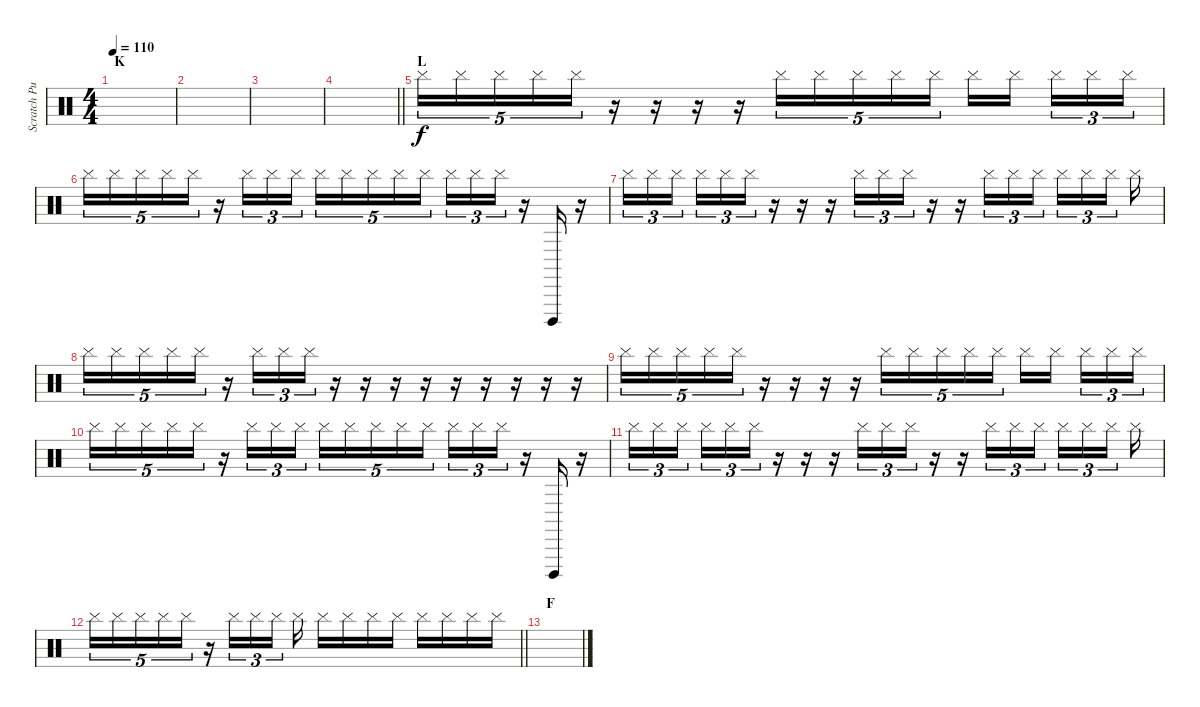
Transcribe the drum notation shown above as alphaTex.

\track ("Scratch Pull Synth" "Scratch Pu") {instrument percussion}
\staff {score}
\articulation defaults
\ts (4 4)
\section ("" "K")
\tempo 110
\clef neutral
\ks c
|
|
|
\barLineRight lightlight
|
\section ("" "L ")
"Cymbal (hit)".16{tu (5 4)} "Cymbal (hit)".16{tu (5 4)} "Cymbal (hit)".16{tu (5 4)} "Cymbal (hit)".16{tu (5 4)} "Cymbal (hit)".16{tu (5 4)} r.16 r.16 r.16 r.16 "Cymbal (hit)".16{tu (5 4)} "Cymbal (hit)".16{tu (5 4)} "Cymbal (hit)".16{tu (5 4)} "Cymbal (hit)".16{tu (5 4)} "Cymbal (hit)".16{tu (5 4)} "Cymbal (hit)".16 "Cymbal (hit)".16{beam splitsecondary} "Cymbal (hit)".16{tu (3 2)} "Cymbal (hit)".16{tu (3 2)} "Cymbal (hit)".16{tu (3 2)} |
"Cymbal (hit)".16{tu (5 4)} "Cymbal (hit)".16{tu (5 4)} "Cymbal (hit)".16{tu (5 4)} "Cymbal (hit)".16{tu (5 4)} "Cymbal (hit)".16{tu (5 4)} r.16 "Cymbal (hit)".16{tu (3 2)} "Cymbal (hit)".16{tu (3 2)} "Cymbal (hit)".16{tu (3 2) beam splitsecondary} "Cymbal (hit)".16{tu (5 4)} "Cymbal (hit)".16{tu (5 4)} "Cymbal (hit)".16{tu (5 4)} "Cymbal (hit)".16{tu (5 4)} "Cymbal (hit)".16{tu (5 4) beam splitsecondary} "Cymbal (hit)".16{tu (3 2)} "Cymbal (hit)".16{tu (3 2)} "Cymbal (hit)".16{tu (3 2)} r.16 "Cuica (open)".16 r.16 |
"Cymbal (hit)".16{tu (3 2)} "Cymbal (hit)".16{tu (3 2)} "Cymbal (hit)".16{tu (3 2) beam splitsecondary} "Cymbal (hit)".16{tu (3 2)} "Cymbal (hit)".16{tu (3 2)} "Cymbal (hit)".16{tu (3 2)} r.16 r.16 r.16 "Cymbal (hit)".16{tu (3 2)} "Cymbal (hit)".16{tu (3 2)} "Cymbal (hit)".16{tu (3 2)} r.16 r.16 "Cymbal (hit)".16{tu (3 2)} "Cymbal (hit)".16{tu (3 2)} "Cymbal (hit)".16{tu (3 2) beam splitsecondary} "Cymbal (hit)".16{tu (3 2)} "Cymbal (hit)".16{tu (3 2)} "Cymbal (hit)".16{tu (3 2) beam splitsecondary} "Cymbal (hit)".16 |
"Cymbal (hit)".16{tu (5 4)} "Cymbal (hit)".16{tu (5 4)} "Cymbal (hit)".16{tu (5 4)} "Cymbal (hit)".16{tu (5 4)} "Cymbal (hit)".16{tu (5 4)} r.16 "Cymbal (hit)".16{tu (3 2)} "Cymbal (hit)".16{tu (3 2)} "Cymbal (hit)".16{tu (3 2)} r.16 r.16 r.16 r.16 r.16 r.16 r.16 r.16 r.16 |
"Cymbal (hit)".16{tu (5 4)} "Cymbal (hit)".16{tu (5 4)} "Cymbal (hit)".16{tu (5 4)} "Cymbal (hit)".16{tu (5 4)} "Cymbal (hit)".16{tu (5 4)} r.16 r.16 r.16 r.16 "Cymbal (hit)".16{tu (5 4)} "Cymbal (hit)".16{tu (5 4)} "Cymbal (hit)".16{tu (5 4)} "Cymbal (hit)".16{tu (5 4)} "Cymbal (hit)".16{tu (5 4)} "Cymbal (hit)".16 "Cymbal (hit)".16{beam splitsecondary} "Cymbal (hit)".16{tu (3 2)} "Cymbal (hit)".16{tu (3 2)} "Cymbal (hit)".16{tu (3 2)} |
"Cymbal (hit)".16{tu (5 4)} "Cymbal (hit)".16{tu (5 4)} "Cymbal (hit)".16{tu (5 4)} "Cymbal (hit)".16{tu (5 4)} "Cymbal (hit)".16{tu (5 4)} r.16 "Cymbal (hit)".16{tu (3 2)} "Cymbal (hit)".16{tu (3 2)} "Cymbal (hit)".16{tu (3 2) beam splitsecondary} "Cymbal (hit)".16{tu (5 4)} "Cymbal (hit)".16{tu (5 4)} "Cymbal (hit)".16{tu (5 4)} "Cymbal (hit)".16{tu (5 4)} "Cymbal (hit)".16{tu (5 4) beam splitsecondary} "Cymbal (hit)".16{tu (3 2)} "Cymbal (hit)".16{tu (3 2)} "Cymbal (hit)".16{tu (3 2)} r.16 "Cuica (open)".16 r.16 |
"Cymbal (hit)".16{tu (3 2)} "Cymbal (hit)".16{tu (3 2)} "Cymbal (hit)".16{tu (3 2) beam splitsecondary} "Cymbal (hit)".16{tu (3 2)} "Cymbal (hit)".16{tu (3 2)} "Cymbal (hit)".16{tu (3 2)} r.16 r.16 r.16 "Cymbal (hit)".16{tu (3 2)} "Cymbal (hit)".16{tu (3 2)} "Cymbal (hit)".16{tu (3 2)} r.16 r.16 "Cymbal (hit)".16{tu (3 2)} "Cymbal (hit)".16{tu (3 2)} "Cymbal (hit)".16{tu (3 2) beam splitsecondary} "Cymbal (hit)".16{tu (3 2)} "Cymbal (hit)".16{tu (3 2)} "Cymbal (hit)".16{tu (3 2) beam splitsecondary} "Cymbal (hit)".16 |
\barLineRight lightlight "Cymbal (hit)".16{tu (5 4)} "Cymbal (hit)".16{tu (5 4)} "Cymbal (hit)".16{tu (5 4)} "Cymbal (hit)".16{tu (5 4)} "Cymbal (hit)".16{tu (5 4)}
r.16 "Cymbal (hit)".16{tu (3 2)} "Cymbal (hit)".16{tu (3 2)} "Cymbal (hit)".16{tu (3 2) beam splitsecondary} "Cymbal (hit)".16 "Cymbal (hit)".16 "Cymbal (hit)".16 "Cymbal (hit)".16 "Cymbal (hit)".16 "Cymbal (hit)".16 "Cymbal (hit)".16 "Cymbal (hit)".16 "Cymbal (hit)".16 |
\section ("" "F")
